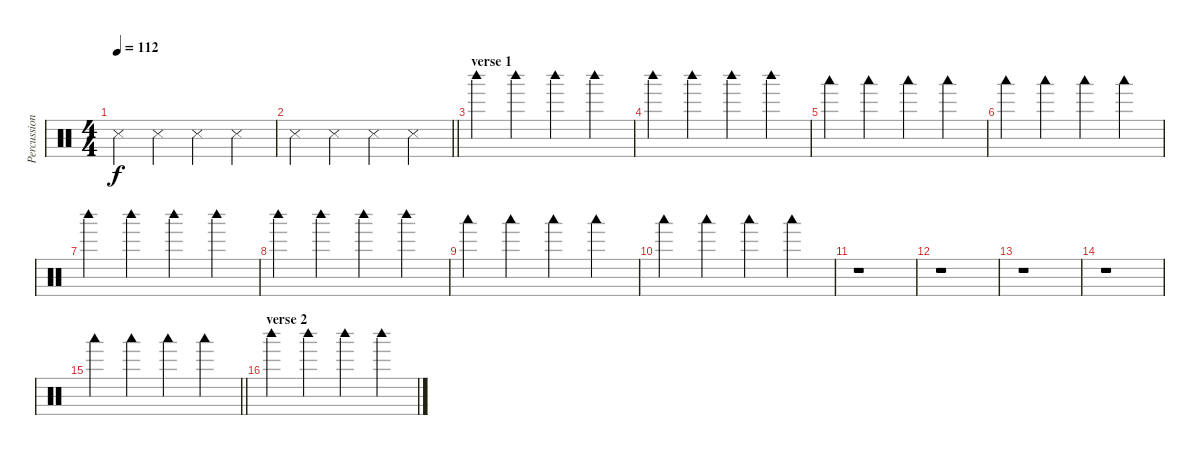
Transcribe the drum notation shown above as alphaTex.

\track ("Percussions (Mason)" "Percussion") {instrument percussion}
\staff {score}
\articulation defaults
\ts (4 4)
\tempo 112
\clef neutral
\ks c "Metronome (hit)".4{dy f} "Metronome (hit)".4 "Metronome (hit)".4 "Metronome (hit)".4
|
\barLineRight lightlight "Metronome (hit)".4 "Metronome (hit)".4 "Metronome (hit)".4 "Metronome (hit)".4
|
\section ("" "verse 1")
"Woodblock high (hit)".4 "Woodblock high (hit)".4 "Woodblock high (hit)".4 "Woodblock high (hit)".4 |
"Woodblock high (hit)".4 "Woodblock high (hit)".4 "Woodblock high (hit)".4 "Woodblock high (hit)".4 |
"Woodblock low (hit)".4 "Woodblock low (hit)".4 "Woodblock low (hit)".4 "Woodblock low (hit)".4 |
"Woodblock low (hit)".4 "Woodblock low (hit)".4 "Woodblock low (hit)".4 "Woodblock low (hit)".4 |
"Woodblock high (hit)".4 "Woodblock high (hit)".4 "Woodblock high (hit)".4 "Woodblock high (hit)".4 |
"Woodblock high (hit)".4 "Woodblock high (hit)".4 "Woodblock high (hit)".4 "Woodblock high (hit)".4 |
"Woodblock low (hit)".4 "Woodblock low (hit)".4 "Woodblock low (hit)".4 "Woodblock low (hit)".4 |
"Woodblock low (hit)".4 "Woodblock low (hit)".4 "Woodblock low (hit)".4 "Woodblock low (hit)".4 |
r.1 |
r.1 |
r.1 |
r.1 |
\barLineRight lightlight "Woodblock low (hit)".4 "Woodblock low (hit)".4 "Woodblock low (hit)".4 "Woodblock low (hit)".4
|
\section ("" "verse 2")
"Woodblock high (hit)".4 "Woodblock high (hit)".4 "Woodblock high (hit)".4 "Woodblock high (hit)".4
